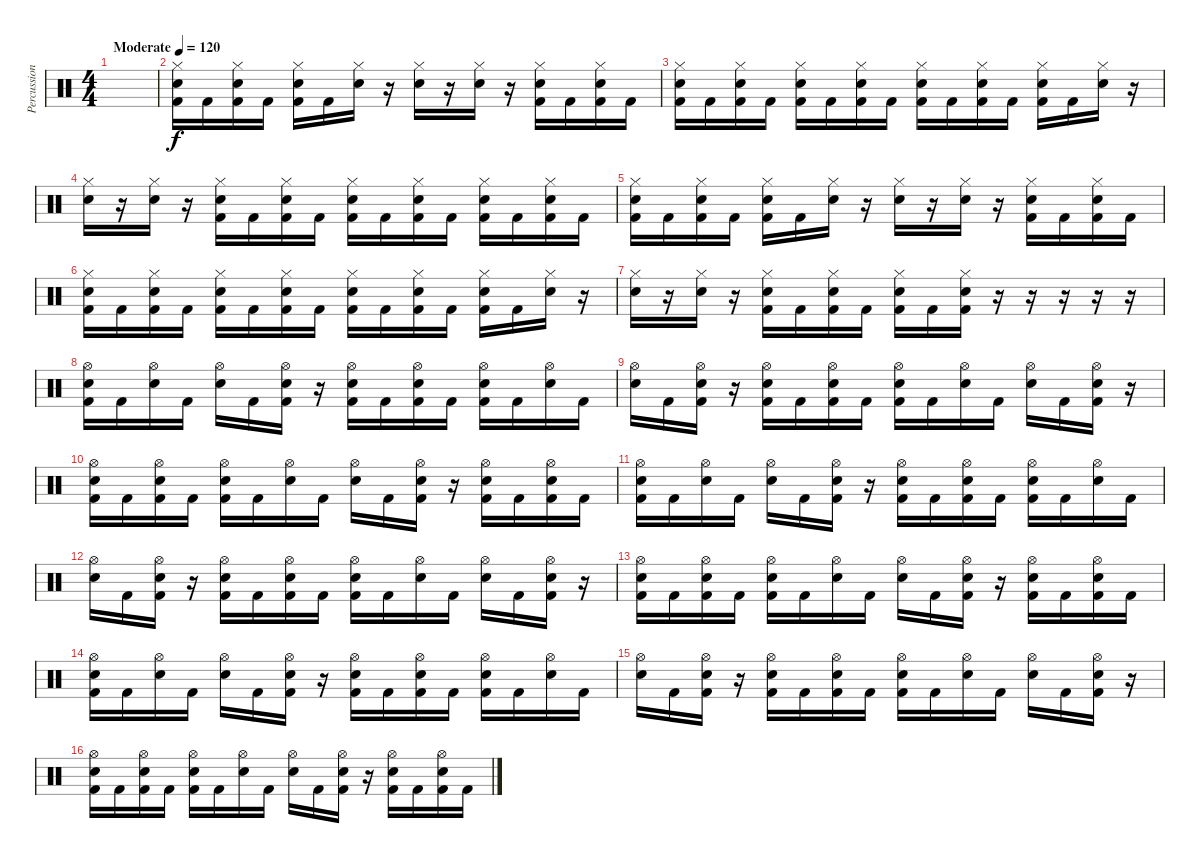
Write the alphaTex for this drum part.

\track ("Percussion" "Percussion") {instrument percussion}
\staff {score}
\articulation defaults
\ts (4 4)
\tempo (120 "Moderate")
\clef neutral
\ks c
|
("Hi-Hat (closed)" "Electric Snare (hit)" "Kick (hit) 2").16{volume 8} "Kick (hit) 2".16 ("Hi-Hat (closed)" "Electric Snare (hit)" "Kick (hit) 2").16 "Kick (hit) 2".16 ("Hi-Hat (closed)" "Electric Snare (hit)" "Kick (hit) 2").16 "Kick (hit) 2".16 ("Hi-Hat (closed)" "Electric Snare (hit)").16 r.16 ("Hi-Hat (closed)" "Electric Snare (hit)").16 r.16 ("Hi-Hat (closed)" "Electric Snare (hit)").16 r.16 ("Hi-Hat (closed)" "Electric Snare (hit)" "Kick (hit) 2").16 "Kick (hit) 2".16 ("Hi-Hat (closed)" "Electric Snare (hit)" "Kick (hit) 2").16 "Kick (hit) 2".16 |
("Hi-Hat (closed)" "Electric Snare (hit)" "Kick (hit) 2").16 "Kick (hit) 2".16 ("Hi-Hat (closed)" "Electric Snare (hit)" "Kick (hit) 2").16 "Kick (hit) 2".16 ("Hi-Hat (closed)" "Electric Snare (hit)" "Kick (hit) 2").16 "Kick (hit) 2".16 ("Hi-Hat (closed)" "Electric Snare (hit)" "Kick (hit) 2").16 "Kick (hit) 2".16 ("Hi-Hat (closed)" "Electric Snare (hit)" "Kick (hit) 2").16 "Kick (hit) 2".16 ("Hi-Hat (closed)" "Electric Snare (hit)" "Kick (hit) 2").16 "Kick (hit) 2".16 ("Hi-Hat (closed)" "Electric Snare (hit)" "Kick (hit) 2").16 "Kick (hit) 2".16 ("Hi-Hat (closed)" "Electric Snare (hit)").16 r.16 |
("Hi-Hat (closed)" "Electric Snare (hit)").16 r.16 ("Hi-Hat (closed)" "Electric Snare (hit)").16 r.16 ("Hi-Hat (closed)" "Electric Snare (hit)" "Kick (hit) 2").16 "Kick (hit) 2".16 ("Hi-Hat (closed)" "Electric Snare (hit)" "Kick (hit) 2").16 "Kick (hit) 2".16 ("Hi-Hat (closed)" "Electric Snare (hit)" "Kick (hit) 2").16 "Kick (hit) 2".16 ("Hi-Hat (closed)" "Electric Snare (hit)" "Kick (hit) 2").16 "Kick (hit) 2".16 ("Hi-Hat (closed)" "Electric Snare (hit)" "Kick (hit) 2").16 "Kick (hit) 2".16 ("Hi-Hat (closed)" "Electric Snare (hit)" "Kick (hit) 2").16 "Kick (hit) 2".16 |
("Hi-Hat (closed)" "Electric Snare (hit)" "Kick (hit) 2").16 "Kick (hit) 2".16 ("Hi-Hat (closed)" "Electric Snare (hit)" "Kick (hit) 2").16 "Kick (hit) 2".16 ("Hi-Hat (closed)" "Electric Snare (hit)" "Kick (hit) 2").16 "Kick (hit) 2".16 ("Hi-Hat (closed)" "Electric Snare (hit)").16 r.16 ("Hi-Hat (closed)" "Electric Snare (hit)").16 r.16 ("Hi-Hat (closed)" "Electric Snare (hit)").16 r.16 ("Hi-Hat (closed)" "Electric Snare (hit)" "Kick (hit) 2").16 "Kick (hit) 2".16 ("Hi-Hat (closed)" "Electric Snare (hit)" "Kick (hit) 2").16 "Kick (hit) 2".16 |
("Hi-Hat (closed)" "Electric Snare (hit)" "Kick (hit) 2").16 "Kick (hit) 2".16 ("Hi-Hat (closed)" "Electric Snare (hit)" "Kick (hit) 2").16 "Kick (hit) 2".16 ("Hi-Hat (closed)" "Electric Snare (hit)" "Kick (hit) 2").16 "Kick (hit) 2".16 ("Hi-Hat (closed)" "Electric Snare (hit)" "Kick (hit) 2").16 "Kick (hit) 2".16 ("Hi-Hat (closed)" "Electric Snare (hit)" "Kick (hit) 2").16 "Kick (hit) 2".16 ("Hi-Hat (closed)" "Electric Snare (hit)" "Kick (hit) 2").16 "Kick (hit) 2".16 ("Hi-Hat (closed)" "Electric Snare (hit)" "Kick (hit) 2").16 "Kick (hit) 2".16 ("Hi-Hat (closed)" "Electric Snare (hit)").16 r.16 |
("Hi-Hat (closed)" "Electric Snare (hit)").16 r.16 ("Hi-Hat (closed)" "Electric Snare (hit)").16 r.16 ("Hi-Hat (closed)" "Electric Snare (hit)" "Kick (hit) 2").16 "Kick (hit) 2".16 ("Hi-Hat (closed)" "Electric Snare (hit)" "Kick (hit) 2").16 "Kick (hit) 2".16 ("Hi-Hat (closed)" "Electric Snare (hit)" "Kick (hit) 2").16 "Kick (hit) 2".16 ("Hi-Hat (closed)" "Electric Snare (hit)" "Kick (hit) 2").16{volume 16} r.16 r.16 r.16 r.16 r.16 |
("Hi-Hat (open)" "Electric Snare (hit)" "Kick (hit) 2").16 "Kick (hit) 2".16 ("Hi-Hat (open)" "Electric Snare (hit)").16 "Kick (hit) 2".16 ("Hi-Hat (open)" "Electric Snare (hit)").16 "Kick (hit) 2".16 ("Hi-Hat (open)" "Electric Snare (hit)" "Kick (hit) 2").16 r.16 ("Hi-Hat (open)" "Electric Snare (hit)" "Kick (hit) 2").16 "Kick (hit) 2".16 ("Hi-Hat (open)" "Electric Snare (hit)" "Kick (hit) 2").16 "Kick (hit) 2".16 ("Hi-Hat (open)" "Electric Snare (hit)" "Kick (hit) 2").16 "Kick (hit) 2".16 ("Hi-Hat (open)" "Electric Snare (hit)").16 "Kick (hit) 2".16 |
("Hi-Hat (open)" "Electric Snare (hit)").16 "Kick (hit) 2".16 ("Hi-Hat (open)" "Electric Snare (hit)" "Kick (hit) 2").16 r.16 ("Hi-Hat (open)" "Electric Snare (hit)" "Kick (hit) 2").16 "Kick (hit) 2".16 ("Hi-Hat (open)" "Electric Snare (hit)" "Kick (hit) 2").16 "Kick (hit) 2".16 ("Hi-Hat (open)" "Electric Snare (hit)" "Kick (hit) 2").16 "Kick (hit) 2".16 ("Hi-Hat (open)" "Electric Snare (hit)").16 "Kick (hit) 2".16 ("Hi-Hat (open)" "Electric Snare (hit)").16 "Kick (hit) 2".16 ("Hi-Hat (open)" "Electric Snare (hit)" "Kick (hit) 2").16 r.16 |
("Hi-Hat (open)" "Electric Snare (hit)" "Kick (hit) 2").16 "Kick (hit) 2".16 ("Hi-Hat (open)" "Electric Snare (hit)" "Kick (hit) 2").16 "Kick (hit) 2".16 ("Hi-Hat (open)" "Electric Snare (hit)" "Kick (hit) 2").16 "Kick (hit) 2".16 ("Hi-Hat (open)" "Electric Snare (hit)").16 "Kick (hit) 2".16 ("Hi-Hat (open)" "Electric Snare (hit)").16 "Kick (hit) 2".16 ("Hi-Hat (open)" "Electric Snare (hit)" "Kick (hit) 2").16 r.16 ("Hi-Hat (open)" "Electric Snare (hit)" "Kick (hit) 2").16 "Kick (hit) 2".16 ("Hi-Hat (open)" "Electric Snare (hit)" "Kick (hit) 2").16 "Kick (hit) 2".16 |
("Hi-Hat (open)" "Electric Snare (hit)" "Kick (hit) 2").16 "Kick (hit) 2".16 ("Hi-Hat (open)" "Electric Snare (hit)").16 "Kick (hit) 2".16 ("Hi-Hat (open)" "Electric Snare (hit)").16 "Kick (hit) 2".16 ("Hi-Hat (open)" "Electric Snare (hit)" "Kick (hit) 2").16 r.16 ("Hi-Hat (open)" "Electric Snare (hit)" "Kick (hit) 2").16 "Kick (hit) 2".16 ("Hi-Hat (open)" "Electric Snare (hit)" "Kick (hit) 2").16 "Kick (hit) 2".16 ("Hi-Hat (open)" "Electric Snare (hit)" "Kick (hit) 2").16 "Kick (hit) 2".16 ("Hi-Hat (open)" "Electric Snare (hit)").16 "Kick (hit) 2".16 |
("Hi-Hat (open)" "Electric Snare (hit)").16 "Kick (hit) 2".16 ("Hi-Hat (open)" "Electric Snare (hit)" "Kick (hit) 2").16 r.16 ("Hi-Hat (open)" "Electric Snare (hit)" "Kick (hit) 2").16 "Kick (hit) 2".16 ("Hi-Hat (open)" "Electric Snare (hit)" "Kick (hit) 2").16 "Kick (hit) 2".16 ("Hi-Hat (open)" "Electric Snare (hit)" "Kick (hit) 2").16 "Kick (hit) 2".16 ("Hi-Hat (open)" "Electric Snare (hit)").16 "Kick (hit) 2".16 ("Hi-Hat (open)" "Electric Snare (hit)").16 "Kick (hit) 2".16 ("Hi-Hat (open)" "Electric Snare (hit)" "Kick (hit) 2").16 r.16 |
("Hi-Hat (open)" "Electric Snare (hit)" "Kick (hit) 2").16 "Kick (hit) 2".16 ("Hi-Hat (open)" "Electric Snare (hit)" "Kick (hit) 2").16 "Kick (hit) 2".16 ("Hi-Hat (open)" "Electric Snare (hit)" "Kick (hit) 2").16 "Kick (hit) 2".16 ("Hi-Hat (open)" "Electric Snare (hit)").16 "Kick (hit) 2".16 ("Hi-Hat (open)" "Electric Snare (hit)").16 "Kick (hit) 2".16 ("Hi-Hat (open)" "Electric Snare (hit)" "Kick (hit) 2").16 r.16 ("Hi-Hat (open)" "Electric Snare (hit)" "Kick (hit) 2").16 "Kick (hit) 2".16 ("Hi-Hat (open)" "Electric Snare (hit)" "Kick (hit) 2").16 "Kick (hit) 2".16 |
("Hi-Hat (open)" "Electric Snare (hit)" "Kick (hit) 2").16 "Kick (hit) 2".16 ("Hi-Hat (open)" "Electric Snare (hit)").16 "Kick (hit) 2".16 ("Hi-Hat (open)" "Electric Snare (hit)").16 "Kick (hit) 2".16 ("Hi-Hat (open)" "Electric Snare (hit)" "Kick (hit) 2").16 r.16 ("Hi-Hat (open)" "Electric Snare (hit)" "Kick (hit) 2").16 "Kick (hit) 2".16 ("Hi-Hat (open)" "Electric Snare (hit)" "Kick (hit) 2").16 "Kick (hit) 2".16 ("Hi-Hat (open)" "Electric Snare (hit)" "Kick (hit) 2").16 "Kick (hit) 2".16 ("Hi-Hat (open)" "Electric Snare (hit)").16 "Kick (hit) 2".16 |
("Hi-Hat (open)" "Electric Snare (hit)").16 "Kick (hit) 2".16 ("Hi-Hat (open)" "Electric Snare (hit)" "Kick (hit) 2").16 r.16 ("Hi-Hat (open)" "Electric Snare (hit)" "Kick (hit) 2").16 "Kick (hit) 2".16 ("Hi-Hat (open)" "Electric Snare (hit)" "Kick (hit) 2").16 "Kick (hit) 2".16 ("Hi-Hat (open)" "Electric Snare (hit)" "Kick (hit) 2").16 "Kick (hit) 2".16 ("Hi-Hat (open)" "Electric Snare (hit)").16 "Kick (hit) 2".16 ("Hi-Hat (open)" "Electric Snare (hit)").16 "Kick (hit) 2".16 ("Hi-Hat (open)" "Electric Snare (hit)" "Kick (hit) 2").16 r.16 |
("Hi-Hat (open)" "Electric Snare (hit)" "Kick (hit) 2").16 "Kick (hit) 2".16 ("Hi-Hat (open)" "Electric Snare (hit)" "Kick (hit) 2").16 "Kick (hit) 2".16 ("Hi-Hat (open)" "Electric Snare (hit)" "Kick (hit) 2").16 "Kick (hit) 2".16 ("Hi-Hat (open)" "Electric Snare (hit)").16 "Kick (hit) 2".16 ("Hi-Hat (open)" "Electric Snare (hit)").16 "Kick (hit) 2".16 ("Hi-Hat (open)" "Electric Snare (hit)" "Kick (hit) 2").16 r.16 ("Hi-Hat (open)" "Electric Snare (hit)" "Kick (hit) 2").16 "Kick (hit) 2".16 ("Hi-Hat (open)" "Electric Snare (hit)" "Kick (hit) 2").16 "Kick (hit) 2".16
